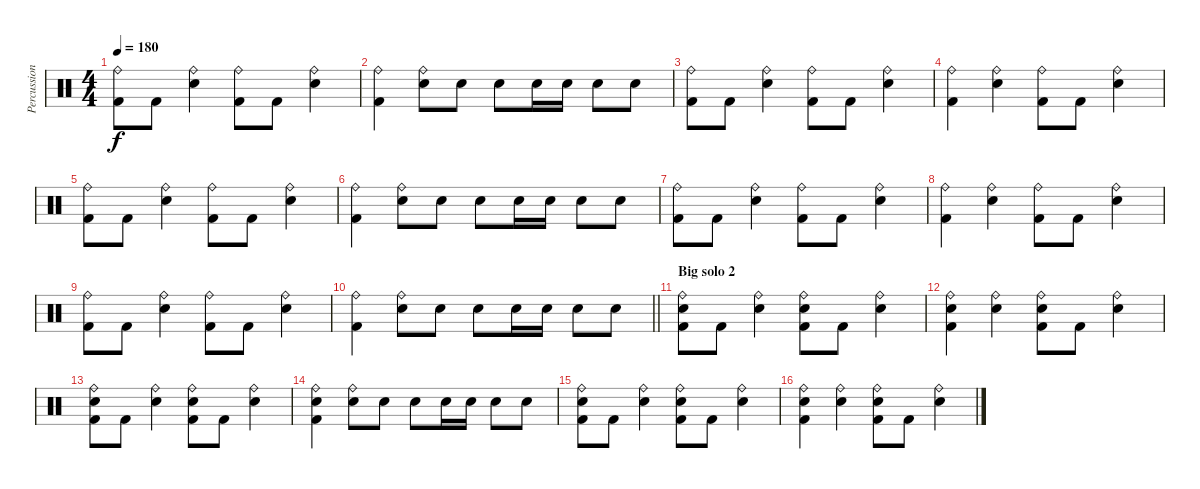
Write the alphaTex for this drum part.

\track ("Percussion" "Percussion") {instrument percussion}
\staff {score}
\articulation defaults
\ts (4 4)
\tempo 180
\clef neutral
\ks c
("Ride (bell)" "Kick (hit) 2").8{dy f} "Kick (hit) 2".8 ("Ride (bell)" "Snare (hit) 2").4 ("Ride (bell)" "Kick (hit) 2").8 "Kick (hit) 2".8 ("Ride (bell)" "Snare (hit) 2").4 |
("Ride (bell)" "Kick (hit) 2").4 ("Ride (bell)" "Snare (hit) 2").8 "Snare (hit) 2".8 "Snare (hit) 2".8 "Snare (hit) 2".16 "Snare (hit) 2".16 "Snare (hit) 2".8 "Snare (hit) 2".8 |
("Ride (bell)" "Kick (hit) 2").8 "Kick (hit) 2".8 ("Ride (bell)" "Snare (hit) 2").4 ("Ride (bell)" "Kick (hit) 2").8 "Kick (hit) 2".8 ("Ride (bell)" "Snare (hit) 2").4 |
("Ride (bell)" "Kick (hit) 2").4 ("Ride (bell)" "Snare (hit) 2").4 ("Ride (bell)" "Kick (hit) 2").8 "Kick (hit) 2".8 ("Ride (bell)" "Snare (hit) 2").4 |
("Ride (bell)" "Kick (hit) 2").8 "Kick (hit) 2".8 ("Ride (bell)" "Snare (hit) 2").4 ("Ride (bell)" "Kick (hit) 2").8 "Kick (hit) 2".8 ("Ride (bell)" "Snare (hit) 2").4 |
("Ride (bell)" "Kick (hit) 2").4 ("Ride (bell)" "Snare (hit) 2").8 "Snare (hit) 2".8 "Snare (hit) 2".8 "Snare (hit) 2".16 "Snare (hit) 2".16 "Snare (hit) 2".8 "Snare (hit) 2".8 |
("Ride (bell)" "Kick (hit) 2").8 "Kick (hit) 2".8 ("Ride (bell)" "Snare (hit) 2").4 ("Ride (bell)" "Kick (hit) 2").8 "Kick (hit) 2".8 ("Ride (bell)" "Snare (hit) 2").4 |
("Ride (bell)" "Kick (hit) 2").4 ("Ride (bell)" "Snare (hit) 2").4 ("Ride (bell)" "Kick (hit) 2").8 "Kick (hit) 2".8 ("Ride (bell)" "Snare (hit) 2").4 |
("Ride (bell)" "Kick (hit) 2").8 "Kick (hit) 2".8 ("Ride (bell)" "Snare (hit) 2").4 ("Ride (bell)" "Kick (hit) 2").8 "Kick (hit) 2".8 ("Ride (bell)" "Snare (hit) 2").4 |
\barLineRight lightlight
("Ride (bell)" "Kick (hit) 2").4 ("Ride (bell)" "Snare (hit) 2").8 "Snare (hit) 2".8 "Snare (hit) 2".8 "Snare (hit) 2".16 "Snare (hit) 2".16 "Snare (hit) 2".8 "Snare (hit) 2".8 |
\section ("" "Big solo 2")
("Ride (bell)" "Snare (hit) 2" "Kick (hit) 2").8 "Kick (hit) 2".8 ("Ride (bell)" "Snare (hit) 2").4 ("Ride (bell)" "Snare (hit) 2" "Kick (hit) 2").8 "Kick (hit) 2".8 ("Ride (bell)" "Snare (hit) 2").4 |
("Ride (bell)" "Snare (hit) 2" "Kick (hit) 2").4 ("Ride (bell)" "Snare (hit) 2").4 ("Ride (bell)" "Snare (hit) 2" "Kick (hit) 2").8 "Kick (hit) 2".8 ("Ride (bell)" "Snare (hit) 2").4 |
("Ride (bell)" "Snare (hit) 2" "Kick (hit) 2").8 "Kick (hit) 2".8 ("Ride (bell)" "Snare (hit) 2").4 ("Ride (bell)" "Snare (hit) 2" "Kick (hit) 2").8 "Kick (hit) 2".8 ("Ride (bell)" "Snare (hit) 2").4 |
("Ride (bell)" "Snare (hit) 2" "Kick (hit) 2").4 ("Ride (bell)" "Snare (hit) 2").8 "Snare (hit) 2".8 "Snare (hit) 2".8 "Snare (hit) 2".16 "Snare (hit) 2".16 "Snare (hit) 2".8 "Snare (hit) 2".8 |
("Ride (bell)" "Snare (hit) 2" "Kick (hit) 2").8 "Kick (hit) 2".8 ("Ride (bell)" "Snare (hit) 2").4 ("Ride (bell)" "Snare (hit) 2" "Kick (hit) 2").8 "Kick (hit) 2".8 ("Ride (bell)" "Snare (hit) 2").4 |
("Ride (bell)" "Snare (hit) 2" "Kick (hit) 2").4 ("Ride (bell)" "Snare (hit) 2").4 ("Ride (bell)" "Snare (hit) 2" "Kick (hit) 2").8 "Kick (hit) 2".8 ("Ride (bell)" "Snare (hit) 2").4
